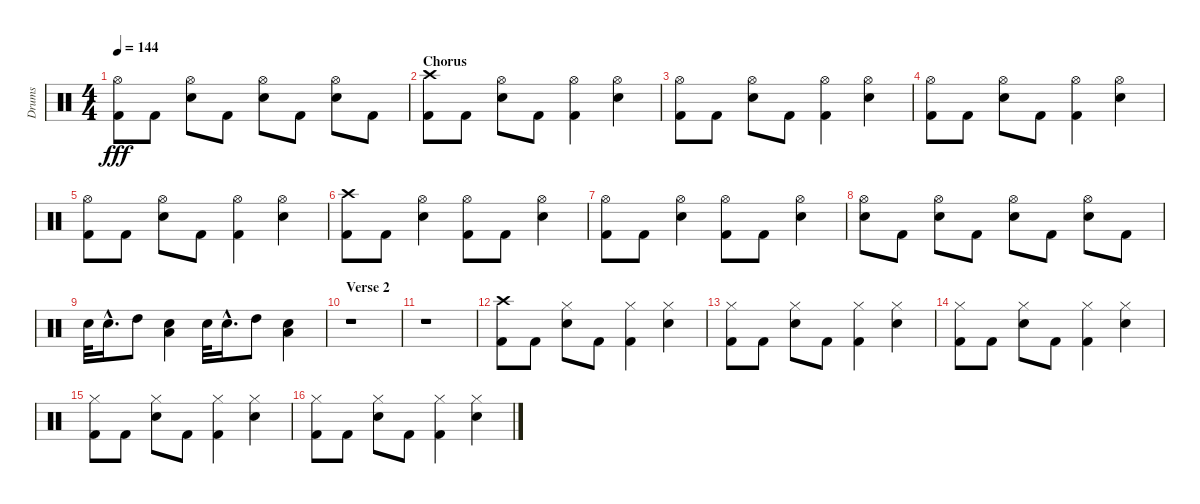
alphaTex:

\track ("Drums" "Drums") {instrument percussion}
\staff {score}
\articulation defaults
\ts (4 4)
\tempo 144
\clef neutral
\ks c
("Hi-Hat (open)" "Kick (hit) 2").8{dy fff} "Kick (hit) 2".8 ("Hi-Hat (open)" "Snare (hit) 2").8 "Kick (hit) 2".8 ("Hi-Hat (open)" "Snare (hit) 2").8 "Kick (hit) 2".8 ("Hi-Hat (open)" "Snare (hit) 2").8 "Kick (hit) 2".8 |
\section ("" "Chorus")
("Crash high (hit)" "Kick (hit) 2").8 "Kick (hit) 2".8 ("Hi-Hat (open)" "Snare (hit) 2").8 "Kick (hit) 2".8 ("Hi-Hat (open)" "Kick (hit) 2").4 ("Hi-Hat (open)" "Snare (hit) 2").4 |
("Hi-Hat (open)" "Kick (hit) 2").8 "Kick (hit) 2".8 ("Hi-Hat (open)" "Snare (hit) 2").8 "Kick (hit) 2".8 ("Hi-Hat (open)" "Kick (hit) 2").4 ("Hi-Hat (open)" "Snare (hit) 2").4 |
("Hi-Hat (open)" "Kick (hit) 2").8 "Kick (hit) 2".8 ("Hi-Hat (open)" "Snare (hit) 2").8 "Kick (hit) 2".8 ("Hi-Hat (open)" "Kick (hit) 2").4 ("Hi-Hat (open)" "Snare (hit) 2").4 |
("Hi-Hat (open)" "Kick (hit) 2").8 "Kick (hit) 2".8 ("Hi-Hat (open)" "Snare (hit) 2").8 "Kick (hit) 2".8 ("Hi-Hat (open)" "Kick (hit) 2").4 ("Hi-Hat (open)" "Snare (hit) 2").4 |
("Crash high (hit)" "Kick (hit) 2").8 "Kick (hit) 2".8 ("Hi-Hat (open)" "Snare (hit) 2").4 ("Hi-Hat (open)" "Kick (hit) 2").8 "Kick (hit) 2".8 ("Hi-Hat (open)" "Snare (hit) 2").4 |
("Hi-Hat (open)" "Kick (hit) 2").8 "Kick (hit) 2".8 ("Hi-Hat (open)" "Snare (hit) 2").4 ("Hi-Hat (open)" "Kick (hit) 2").8 "Kick (hit) 2".8 ("Hi-Hat (open)" "Snare (hit) 2").4 |
("Hi-Hat (open)" "Snare (hit) 2").8 "Kick (hit) 2".8 ("Hi-Hat (open)" "Snare (hit) 2").8 "Kick (hit) 2".8 ("Hi-Hat (open)" "Snare (hit) 2").8 "Kick (hit) 2".8 ("Hi-Hat (open)" "Snare (hit) 2").8 "Kick (hit) 2".8 |
"Snare (hit) 2".32 "Snare (hit) 2"{hac}.16{d} "High Tom (hit)".8 ("Snare (hit) 2" "Low Tom (hit)").4 "Snare (hit) 2".32 "Snare (hit) 2"{hac}.16{d} "High Tom (hit)".8 ("Snare (hit) 2" "Low Tom (hit)").4 |
\section ("" "Verse 2")
r.1 |
r.1 |
("Crash high (hit)" "Kick (hit) 2").8 "Kick (hit) 2".8 ("Hi-Hat (closed)" "Snare (hit) 2").8 "Kick (hit) 2".8 ("Hi-Hat (closed)" "Kick (hit) 2").4 ("Hi-Hat (closed)" "Snare (hit) 2").4 |
("Hi-Hat (closed)" "Kick (hit) 2").8 "Kick (hit) 2".8 ("Hi-Hat (closed)" "Snare (hit) 2").8 "Kick (hit) 2".8 ("Hi-Hat (closed)" "Kick (hit) 2").4 ("Hi-Hat (closed)" "Snare (hit) 2").4 |
("Hi-Hat (closed)" "Kick (hit) 2").8 "Kick (hit) 2".8 ("Hi-Hat (closed)" "Snare (hit) 2").8 "Kick (hit) 2".8 ("Hi-Hat (closed)" "Kick (hit) 2").4 ("Hi-Hat (closed)" "Snare (hit) 2").4 |
("Hi-Hat (closed)" "Kick (hit) 2").8 "Kick (hit) 2".8 ("Hi-Hat (closed)" "Snare (hit) 2").8 "Kick (hit) 2".8 ("Hi-Hat (closed)" "Kick (hit) 2").4 ("Hi-Hat (closed)" "Snare (hit) 2").4 |
("Hi-Hat (closed)" "Kick (hit) 2").8 "Kick (hit) 2".8 ("Hi-Hat (closed)" "Snare (hit) 2").8 "Kick (hit) 2".8 ("Hi-Hat (closed)" "Kick (hit) 2").4 ("Hi-Hat (closed)" "Snare (hit) 2").4
